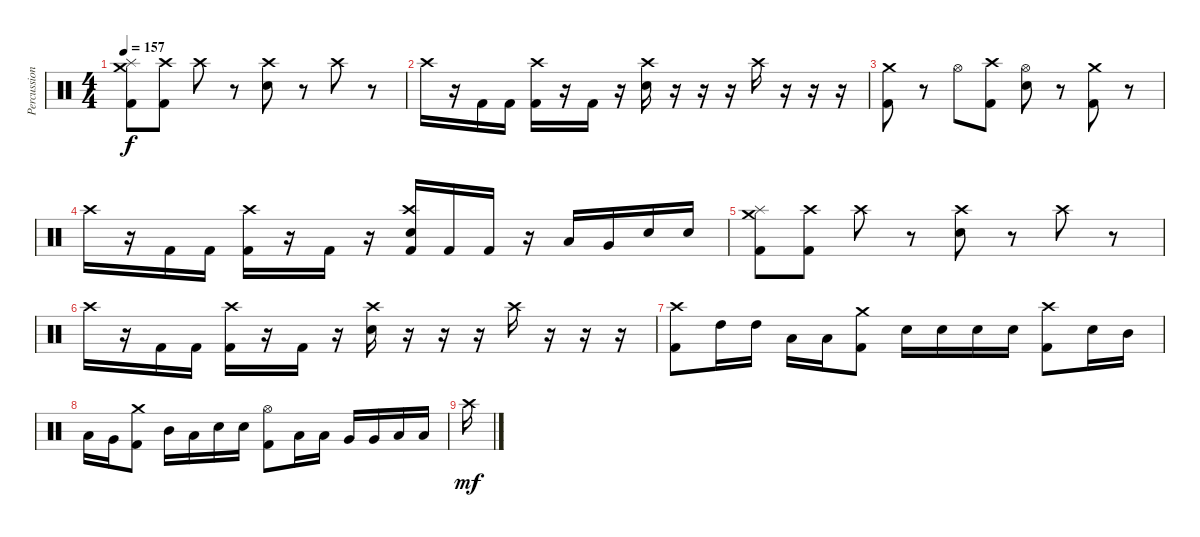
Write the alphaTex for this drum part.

\track ("Percussions" "Percussion") {instrument percussion}
\staff {score}
\articulation defaults
\ts (4 4)
\tempo 157
\clef neutral
\ks c
("Crash medium (hit)" "Splash (hit)" "Kick (hit) 2").8{dy f} ("Crash high (hit)" "Kick (hit) 2").8 "Crash high (hit)".8 r.8 ("Crash high (hit)" "Electric Snare (hit)").8 r.8 "Crash high (hit)".8 r.8 |
"Crash high (hit)".16 r.16 "Kick (hit) 2".16 "Kick (hit) 2".16 ("Crash high (hit)" "Kick (hit) 2").16 r.16 "Kick (hit) 2".16 r.16 ("Crash high (hit)" "Electric Snare (hit)").16 r.16 r.16 r.16 "Crash high (hit)".16 r.16 r.16 r.16 |
("Crash medium (hit)" "Kick (hit) 2").8 r.8 "Hi-Hat (open)".8 ("Crash high (hit)" "Kick (hit) 2").8 ("Hi-Hat (open)" "Electric Snare (hit)").8 r.8 ("Crash medium (hit)" "Kick (hit) 2").8 r.8 |
"Crash high (hit)".16 r.16 "Kick (hit) 2".16 "Kick (hit) 2".16 ("Crash high (hit)" "Kick (hit) 2").16 r.16 "Kick (hit) 2".16 r.16 ("Crash high (hit)" "Electric Snare (hit)" "Kick (hit) 2").16 "Kick (hit) 2".16 "Kick (hit) 2".16 r.16 "Low Tom (hit)".16 "Very Low Tom (hit)".16 "Electric Snare (hit)".16 "Electric Snare (hit)".16 |
("Crash medium (hit)" "Splash (hit)" "Kick (hit) 2").8 ("Crash high (hit)" "Kick (hit) 2").8 "Crash high (hit)".8 r.8 ("Crash high (hit)" "Electric Snare (hit)").8 r.8 "Crash high (hit)".8 r.8 |
"Crash high (hit)".16 r.16 "Kick (hit) 2".16 "Kick (hit) 2".16 ("Crash high (hit)" "Kick (hit) 2").16 r.16 "Kick (hit) 2".16 r.16 ("Crash high (hit)" "Electric Snare (hit)").16 r.16 r.16 r.16 "Crash high (hit)".16 r.16 r.16 r.16 |
("Crash high (hit)" "Kick (hit) 2").8 "High Tom (hit)".16 "High Tom (hit)".16 "Low Tom (hit)".16 "Low Tom (hit)".16 ("Crash medium (hit)" "Kick (hit) 2").8 "Electric Snare (hit)".16 "Electric Snare (hit)".16 "Snare (hit) 2".16 "Snare (hit) 2".16 ("Crash high (hit)" "Kick (hit) 2").8 "Electric Snare (hit)".16 "Mid Tom (hit)".16 |
"Low Tom (hit)".16 "Very Low Tom (hit)".16 ("Crash medium (hit)" "Kick (hit) 2").8 "Mid Tom (hit)".16 "Low Tom (hit)".16 "Electric Snare (hit)".16 "Snare (hit) 2".16 ("Hi-Hat (open)" "Kick (hit) 2").8 "Low Tom (hit)".16 "Low Tom (hit)".16 "Very Low Tom (hit)".16 "Very Low Tom (hit)".16 "Low Floor Tom (hit)".16 "Low Floor Tom (hit)".16 |
"Crash high (hit)".16{dy mf}
